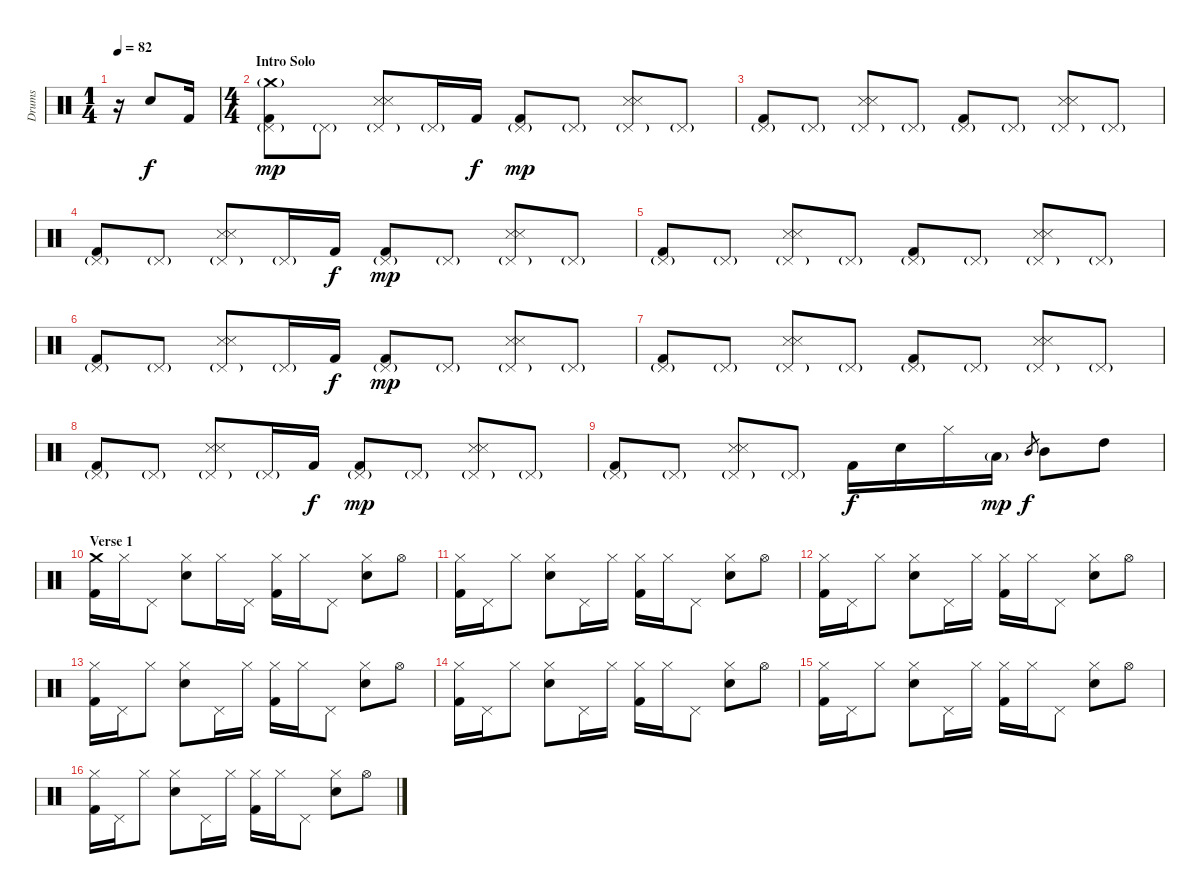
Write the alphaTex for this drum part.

\track ("Drums" "Drums") {instrument percussion}
\staff {score}
\articulation defaults
\ts (1 4)
\tempo 82
\clef neutral
\ks c
r.16{dy f} "Snare (hit) 2".8 "Kick (hit) 2".16 |
\ts (4 4)
\section ("" "Intro Solo")
("Pedal Hi-Hat (hit)"{g} "Kick (hit) 2" "Crash medium (hit)"{g}).8{dy mp} "Pedal Hi-Hat (hit)"{g}.8 ("Pedal Hi-Hat (hit)"{g} "Snare (side stick) 3" "Snare (side stick) 3").8 "Pedal Hi-Hat (hit)"{g}.16 "Kick (hit) 2".16{dy f} ("Pedal Hi-Hat (hit)"{g} "Kick (hit) 2").8{dy mp} "Pedal Hi-Hat (hit)"{g}.8 ("Pedal Hi-Hat (hit)"{g} "Snare (side stick) 3" "Snare (side stick) 3").8 "Pedal Hi-Hat (hit)"{g}.8 |
("Pedal Hi-Hat (hit)"{g} "Kick (hit) 2").8 "Pedal Hi-Hat (hit)"{g}.8 ("Pedal Hi-Hat (hit)"{g} "Snare (side stick) 3" "Snare (side stick) 3").8 "Pedal Hi-Hat (hit)"{g}.8 ("Pedal Hi-Hat (hit)"{g} "Kick (hit) 2").8 "Pedal Hi-Hat (hit)"{g}.8 ("Pedal Hi-Hat (hit)"{g} "Snare (side stick) 3" "Snare (side stick) 3").8 "Pedal Hi-Hat (hit)"{g}.8 |
("Pedal Hi-Hat (hit)"{g} "Kick (hit) 2").8 "Pedal Hi-Hat (hit)"{g}.8 ("Pedal Hi-Hat (hit)"{g} "Snare (side stick) 3" "Snare (side stick) 3").8 "Pedal Hi-Hat (hit)"{g}.16 "Kick (hit) 2".16{dy f} ("Pedal Hi-Hat (hit)"{g} "Kick (hit) 2").8{dy mp} "Pedal Hi-Hat (hit)"{g}.8 ("Pedal Hi-Hat (hit)"{g} "Snare (side stick) 3" "Snare (side stick) 3").8 "Pedal Hi-Hat (hit)"{g}.8 |
("Pedal Hi-Hat (hit)"{g} "Kick (hit) 2").8 "Pedal Hi-Hat (hit)"{g}.8 ("Pedal Hi-Hat (hit)"{g} "Snare (side stick) 3" "Snare (side stick) 3").8 "Pedal Hi-Hat (hit)"{g}.8 ("Pedal Hi-Hat (hit)"{g} "Kick (hit) 2").8 "Pedal Hi-Hat (hit)"{g}.8 ("Pedal Hi-Hat (hit)"{g} "Snare (side stick) 3" "Snare (side stick) 3").8 "Pedal Hi-Hat (hit)"{g}.8 |
("Pedal Hi-Hat (hit)"{g} "Kick (hit) 2").8 "Pedal Hi-Hat (hit)"{g}.8 ("Pedal Hi-Hat (hit)"{g} "Snare (side stick) 3" "Snare (side stick) 3").8 "Pedal Hi-Hat (hit)"{g}.16 "Kick (hit) 2".16{dy f} ("Pedal Hi-Hat (hit)"{g} "Kick (hit) 2").8{dy mp} "Pedal Hi-Hat (hit)"{g}.8 ("Pedal Hi-Hat (hit)"{g} "Snare (side stick) 3" "Snare (side stick) 3").8 "Pedal Hi-Hat (hit)"{g}.8 |
("Pedal Hi-Hat (hit)"{g} "Kick (hit) 2").8 "Pedal Hi-Hat (hit)"{g}.8 ("Pedal Hi-Hat (hit)"{g} "Snare (side stick) 3" "Snare (side stick) 3").8 "Pedal Hi-Hat (hit)"{g}.8 ("Pedal Hi-Hat (hit)"{g} "Kick (hit) 2").8 "Pedal Hi-Hat (hit)"{g}.8 ("Pedal Hi-Hat (hit)"{g} "Snare (side stick) 3" "Snare (side stick) 3").8 "Pedal Hi-Hat (hit)"{g}.8 |
("Pedal Hi-Hat (hit)"{g} "Kick (hit) 2").8 "Pedal Hi-Hat (hit)"{g}.8 ("Pedal Hi-Hat (hit)"{g} "Snare (side stick) 3" "Snare (side stick) 3").8 "Pedal Hi-Hat (hit)"{g}.16 "Kick (hit) 2".16{dy f} ("Pedal Hi-Hat (hit)"{g} "Kick (hit) 2").8{dy mp} "Pedal Hi-Hat (hit)"{g}.8 ("Pedal Hi-Hat (hit)"{g} "Snare (side stick) 3" "Snare (side stick) 3").8 "Pedal Hi-Hat (hit)"{g}.8 |
("Pedal Hi-Hat (hit)"{g} "Kick (hit) 2").8 "Pedal Hi-Hat (hit)"{g}.8 ("Pedal Hi-Hat (hit)"{g} "Snare (side stick) 3" "Snare (side stick) 3").8 "Pedal Hi-Hat (hit)"{g}.8 "Kick (hit) 2".16{dy f} "Snare (hit) 2".16 "Hi-Hat (closed)".16 "Low Tom (hit)"{g}.16{dy mp} "Mid Tom (hit)".8{gr dy f} "Mid Tom (hit)".8 "High Tom (hit)".8 |
\section ("" "Verse 1")
("Crash medium (hit)" "Kick (hit) 2").16 "Hi-Hat (closed)".16 "Pedal Hi-Hat (hit)".8 ("Hi-Hat (closed)" "Snare (hit) 2").8 "Hi-Hat (closed)".16 "Pedal Hi-Hat (hit)".16 ("Hi-Hat (closed)" "Kick (hit) 2").16 "Hi-Hat (closed)".16 "Pedal Hi-Hat (hit)".8 ("Hi-Hat (closed)" "Snare (hit) 2").8 "Hi-Hat (open)".8 |
("Hi-Hat (closed)" "Kick (hit) 2").16 "Pedal Hi-Hat (hit)".16 "Hi-Hat (closed)".8 ("Hi-Hat (closed)" "Snare (hit) 2").8 "Pedal Hi-Hat (hit)".16 "Hi-Hat (closed)".16 ("Hi-Hat (closed)" "Kick (hit) 2").16 "Hi-Hat (closed)".16 "Pedal Hi-Hat (hit)".8 ("Hi-Hat (closed)" "Snare (hit) 2").8 "Hi-Hat (open)".8 |
("Hi-Hat (closed)" "Kick (hit) 2").16 "Pedal Hi-Hat (hit)".16 "Hi-Hat (closed)".8 ("Hi-Hat (closed)" "Snare (hit) 2").8 "Pedal Hi-Hat (hit)".16 "Hi-Hat (closed)".16 ("Hi-Hat (closed)" "Kick (hit) 2").16 "Hi-Hat (closed)".16 "Pedal Hi-Hat (hit)".8 ("Hi-Hat (closed)" "Snare (hit) 2").8 "Hi-Hat (open)".8 |
("Hi-Hat (closed)" "Kick (hit) 2").16 "Pedal Hi-Hat (hit)".16 "Hi-Hat (closed)".8 ("Hi-Hat (closed)" "Snare (hit) 2").8 "Pedal Hi-Hat (hit)".16 "Hi-Hat (closed)".16 ("Hi-Hat (closed)" "Kick (hit) 2").16 "Hi-Hat (closed)".16 "Pedal Hi-Hat (hit)".8 ("Hi-Hat (closed)" "Snare (hit) 2").8 "Hi-Hat (open)".8 |
("Hi-Hat (closed)" "Kick (hit) 2").16 "Pedal Hi-Hat (hit)".16 "Hi-Hat (closed)".8 ("Hi-Hat (closed)" "Snare (hit) 2").8 "Pedal Hi-Hat (hit)".16 "Hi-Hat (closed)".16 ("Hi-Hat (closed)" "Kick (hit) 2").16 "Hi-Hat (closed)".16 "Pedal Hi-Hat (hit)".8 ("Hi-Hat (closed)" "Snare (hit) 2").8 "Hi-Hat (open)".8 |
("Hi-Hat (closed)" "Kick (hit) 2").16 "Pedal Hi-Hat (hit)".16 "Hi-Hat (closed)".8 ("Hi-Hat (closed)" "Snare (hit) 2").8 "Pedal Hi-Hat (hit)".16 "Hi-Hat (closed)".16 ("Hi-Hat (closed)" "Kick (hit) 2").16 "Hi-Hat (closed)".16 "Pedal Hi-Hat (hit)".8 ("Hi-Hat (closed)" "Snare (hit) 2").8 "Hi-Hat (open)".8 |
("Hi-Hat (closed)" "Kick (hit) 2").16 "Pedal Hi-Hat (hit)".16 "Hi-Hat (closed)".8 ("Hi-Hat (closed)" "Snare (hit) 2").8 "Pedal Hi-Hat (hit)".16 "Hi-Hat (closed)".16 ("Hi-Hat (closed)" "Kick (hit) 2").16 "Hi-Hat (closed)".16 "Pedal Hi-Hat (hit)".8 ("Hi-Hat (closed)" "Snare (hit) 2").8 "Hi-Hat (open)".8
